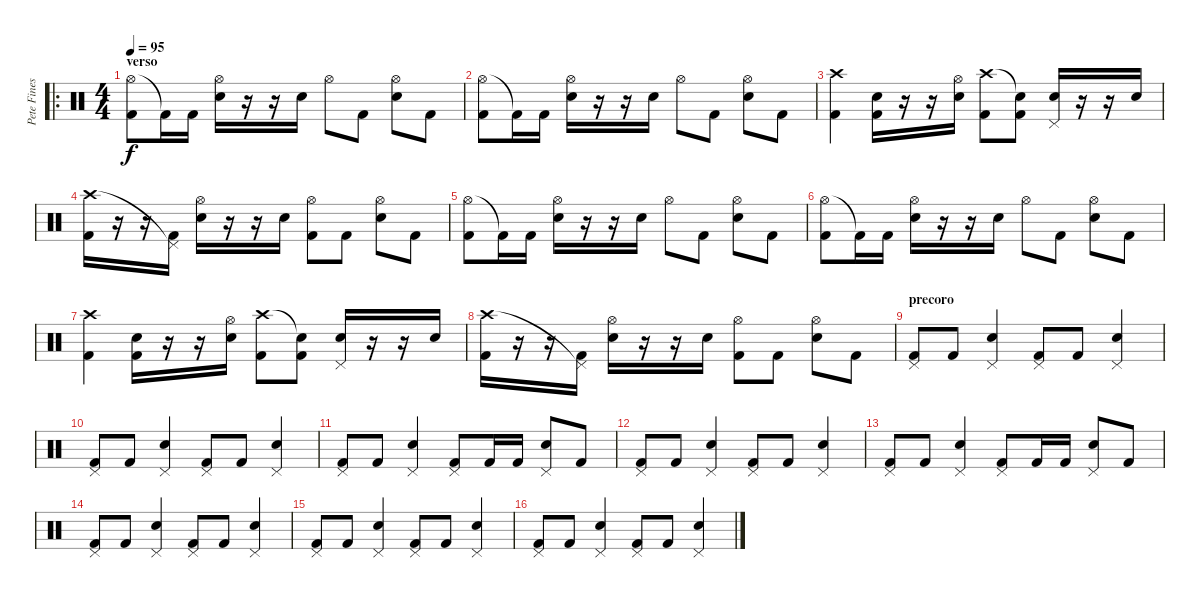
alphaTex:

\track ("Pete Finestone" "Pete Fines") {instrument percussion}
\staff {score}
\articulation defaults
\ro
\ts (4 4)
\section ("" "verso")
\tempo 95
\clef neutral
\ks c
("Hi-Hat (open)" "Kick (hit) 2").8{dy f} "Kick (hit) 2"{t}.16 "Kick (hit) 2".16 ("Hi-Hat (open)" "Electric Snare (hit)").16 r.16 r.16 "Electric Snare (hit)".16 "Hi-Hat (open)".8 "Kick (hit) 2".8 ("Hi-Hat (open)" "Electric Snare (hit)").8 "Kick (hit) 2".8 |
("Hi-Hat (open)" "Kick (hit) 2").8 "Kick (hit) 2"{t}.16 "Kick (hit) 2".16 ("Hi-Hat (open)" "Electric Snare (hit)").16 r.16 r.16 "Electric Snare (hit)".16 "Hi-Hat (open)".8 "Kick (hit) 2".8 ("Hi-Hat (open)" "Electric Snare (hit)").8 "Kick (hit) 2".8 |
("Crash high (hit)" "Kick (hit) 2").4 ("Electric Snare (hit)" "Kick (hit) 2").16 r.16 r.16 ("Hi-Hat (open)" "Electric Snare (hit)").16 ("Crash high (hit)" "Kick (hit) 2").8 ("Snare (hit)"{t} "Kick (hit) 2").8 ("Pedal Hi-Hat (hit)" "Electric Snare (hit)").16 r.16 r.16 "Electric Snare (hit)".16 |
("Crash high (hit)" "Kick (hit) 2").16 r.16 r.16 ("Pedal Hi-Hat (hit)"{t} "Kick (hit) 2").16 ("Hi-Hat (open)" "Electric Snare (hit)").16 r.16 r.16 "Electric Snare (hit)".16 ("Hi-Hat (open)" "Kick (hit) 2").8 "Kick (hit) 2".8 ("Hi-Hat (open)" "Electric Snare (hit)").8 "Kick (hit) 2".8 |
("Hi-Hat (open)" "Kick (hit) 2").8 "Kick (hit) 2"{t}.16 "Kick (hit) 2".16 ("Hi-Hat (open)" "Electric Snare (hit)").16 r.16 r.16 "Electric Snare (hit)".16 "Hi-Hat (open)".8 "Kick (hit) 2".8 ("Hi-Hat (open)" "Electric Snare (hit)").8 "Kick (hit) 2".8 |
("Hi-Hat (open)" "Kick (hit) 2").8 "Kick (hit) 2"{t}.16 "Kick (hit) 2".16 ("Hi-Hat (open)" "Electric Snare (hit)").16 r.16 r.16 "Electric Snare (hit)".16 "Hi-Hat (open)".8 "Kick (hit) 2".8 ("Hi-Hat (open)" "Electric Snare (hit)").8 "Kick (hit) 2".8 |
("Crash high (hit)" "Kick (hit) 2").4 ("Electric Snare (hit)" "Kick (hit) 2").16 r.16 r.16 ("Hi-Hat (open)" "Electric Snare (hit)").16 ("Crash high (hit)" "Kick (hit) 2").8 ("Snare (hit)"{t} "Kick (hit) 2").8 ("Pedal Hi-Hat (hit)" "Electric Snare (hit)").16 r.16 r.16 "Electric Snare (hit)".16 |
("Crash high (hit)" "Kick (hit) 2").16 r.16 r.16 ("Pedal Hi-Hat (hit)"{t} "Kick (hit) 2").16 ("Hi-Hat (open)" "Electric Snare (hit)").16 r.16 r.16 "Electric Snare (hit)".16 ("Hi-Hat (open)" "Kick (hit) 2").8 "Kick (hit) 2".8 ("Hi-Hat (open)" "Electric Snare (hit)").8 "Kick (hit) 2".8 |
\section ("" "precoro")
("Pedal Hi-Hat (hit)" "Kick (hit) 2").8 "Kick (hit) 2".8 ("Pedal Hi-Hat (hit)" "Electric Snare (hit)").4 ("Pedal Hi-Hat (hit)" "Kick (hit) 2").8 "Kick (hit) 2".8 ("Pedal Hi-Hat (hit)" "Electric Snare (hit)").4 |
("Pedal Hi-Hat (hit)" "Kick (hit) 2").8 "Kick (hit) 2".8 ("Pedal Hi-Hat (hit)" "Snare (hit) 2").4 ("Pedal Hi-Hat (hit)" "Kick (hit) 2").8 "Kick (hit) 2".8 ("Pedal Hi-Hat (hit)" "Snare (hit) 2").4 |
("Pedal Hi-Hat (hit)" "Kick (hit) 2").8 "Kick (hit) 2".8 ("Pedal Hi-Hat (hit)" "Snare (hit) 2").4 ("Pedal Hi-Hat (hit)" "Kick (hit) 2").8 "Kick (hit) 2".16 "Kick (hit) 2".16 ("Pedal Hi-Hat (hit)" "Snare (hit) 2").8 "Kick (hit) 2".8 |
("Pedal Hi-Hat (hit)" "Kick (hit) 2").8 "Kick (hit) 2".8 ("Pedal Hi-Hat (hit)" "Snare (hit) 2").4 ("Pedal Hi-Hat (hit)" "Kick (hit) 2").8 "Kick (hit) 2".8 ("Pedal Hi-Hat (hit)" "Snare (hit) 2").4 |
("Pedal Hi-Hat (hit)" "Kick (hit) 2").8 "Kick (hit) 2".8 ("Pedal Hi-Hat (hit)" "Snare (hit) 2").4 ("Pedal Hi-Hat (hit)" "Kick (hit) 2").8 "Kick (hit) 2".16 "Kick (hit) 2".16 ("Pedal Hi-Hat (hit)" "Snare (hit) 2").8 "Kick (hit) 2".8 |
("Pedal Hi-Hat (hit)" "Kick (hit) 2").8 "Kick (hit) 2".8 ("Pedal Hi-Hat (hit)" "Snare (hit) 2").4 ("Pedal Hi-Hat (hit)" "Kick (hit) 2").8 "Kick (hit) 2".8 ("Pedal Hi-Hat (hit)" "Snare (hit) 2").4 |
("Pedal Hi-Hat (hit)" "Kick (hit) 2").8 "Kick (hit) 2".8 ("Pedal Hi-Hat (hit)" "Snare (hit) 2").4 ("Pedal Hi-Hat (hit)" "Kick (hit) 2").8 "Kick (hit) 2".8 ("Pedal Hi-Hat (hit)" "Snare (hit) 2").4 |
("Pedal Hi-Hat (hit)" "Kick (hit) 2").8 "Kick (hit) 2".8 ("Pedal Hi-Hat (hit)" "Snare (hit) 2").4 ("Pedal Hi-Hat (hit)" "Kick (hit) 2").8 "Kick (hit) 2".8 ("Pedal Hi-Hat (hit)" "Snare (hit) 2").4
